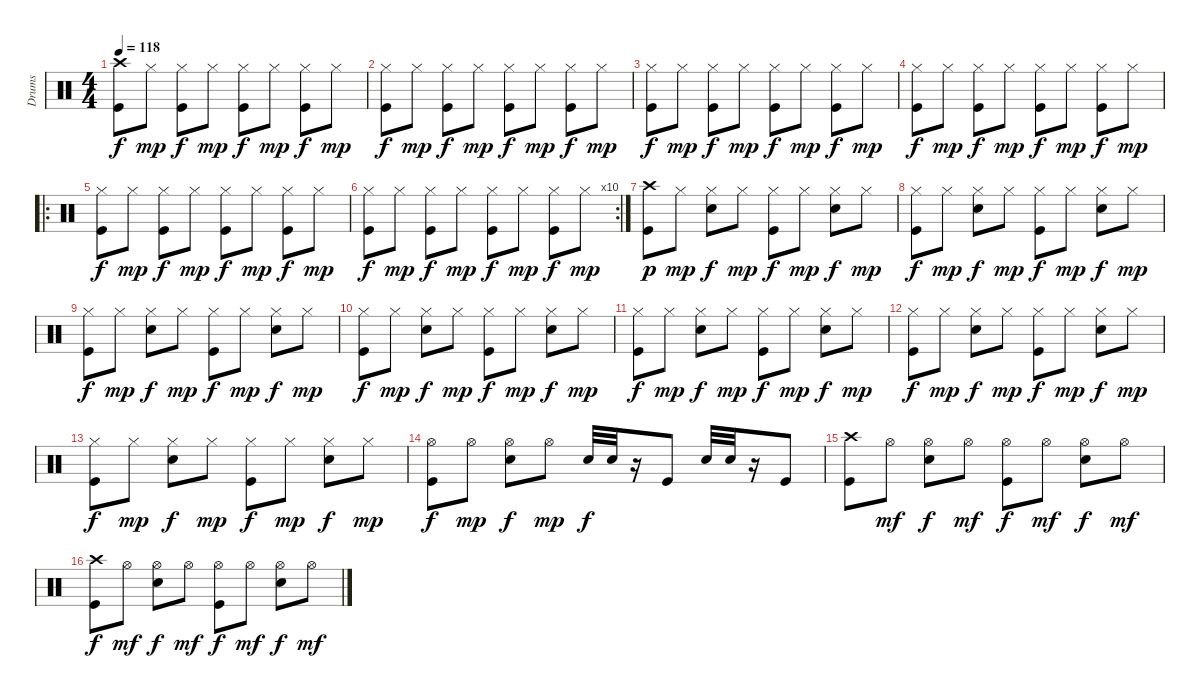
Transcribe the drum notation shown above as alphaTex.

\track ("Drums" "Drums") {instrument percussion}
\staff {score}
\articulation defaults
\ts (4 4)
\tempo 118
\clef neutral
\ks c
("Kick (hit)" "Crash high (hit)").8{dy f} "Hi-Hat (closed)".8{dy mp} ("Hi-Hat (closed)" "Kick (hit)").8{dy f} "Hi-Hat (closed)".8{dy mp} ("Hi-Hat (closed)" "Kick (hit)").8{dy f} "Hi-Hat (closed)".8{dy mp} ("Hi-Hat (closed)" "Kick (hit)").8{dy f} "Hi-Hat (closed)".8{dy mp} |
("Hi-Hat (closed)" "Kick (hit)").8{dy f} "Hi-Hat (closed)".8{dy mp} ("Hi-Hat (closed)" "Kick (hit)").8{dy f} "Hi-Hat (closed)".8{dy mp} ("Hi-Hat (closed)" "Kick (hit)").8{dy f} "Hi-Hat (closed)".8{dy mp} ("Hi-Hat (closed)" "Kick (hit)").8{dy f} "Hi-Hat (closed)".8{dy mp} |
("Hi-Hat (closed)" "Kick (hit)").8{dy f} "Hi-Hat (closed)".8{dy mp} ("Hi-Hat (closed)" "Kick (hit)").8{dy f} "Hi-Hat (closed)".8{dy mp} ("Hi-Hat (closed)" "Kick (hit)").8{dy f} "Hi-Hat (closed)".8{dy mp} ("Hi-Hat (closed)" "Kick (hit)").8{dy f} "Hi-Hat (closed)".8{dy mp} |
("Hi-Hat (closed)" "Kick (hit)").8{dy f} "Hi-Hat (closed)".8{dy mp} ("Hi-Hat (closed)" "Kick (hit)").8{dy f} "Hi-Hat (closed)".8{dy mp} ("Hi-Hat (closed)" "Kick (hit)").8{dy f} "Hi-Hat (closed)".8{dy mp} ("Hi-Hat (closed)" "Kick (hit)").8{dy f} "Hi-Hat (closed)".8{dy mp} |
\ro
("Hi-Hat (closed)" "Kick (hit)").8{dy f} "Hi-Hat (closed)".8{dy mp} ("Hi-Hat (closed)" "Kick (hit)").8{dy f} "Hi-Hat (closed)".8{dy mp} ("Hi-Hat (closed)" "Kick (hit)").8{dy f} "Hi-Hat (closed)".8{dy mp} ("Hi-Hat (closed)" "Kick (hit)").8{dy f} "Hi-Hat (closed)".8{dy mp} |
\rc 10
("Hi-Hat (closed)" "Kick (hit)").8{dy f} "Hi-Hat (closed)".8{dy mp} ("Hi-Hat (closed)" "Kick (hit)").8{dy f} "Hi-Hat (closed)".8{dy mp} ("Hi-Hat (closed)" "Kick (hit)").8{dy f} "Hi-Hat (closed)".8{dy mp} ("Hi-Hat (closed)" "Kick (hit)").8{dy f} "Hi-Hat (closed)".8{dy mp} |
("Crash high (hit)" "Kick (hit)").8{dy p} "Hi-Hat (closed)".8{dy mp} ("Hi-Hat (closed)" "Snare (hit) 2").8{dy f} "Hi-Hat (closed)".8{dy mp} ("Hi-Hat (closed)" "Kick (hit)").8{dy f} "Hi-Hat (closed)".8{dy mp} ("Hi-Hat (closed)" "Snare (hit) 2").8{dy f} "Hi-Hat (closed)".8{dy mp} |
("Hi-Hat (closed)" "Kick (hit)").8{dy f} "Hi-Hat (closed)".8{dy mp} ("Hi-Hat (closed)" "Snare (hit) 2").8{dy f} "Hi-Hat (closed)".8{dy mp} ("Hi-Hat (closed)" "Kick (hit)").8{dy f} "Hi-Hat (closed)".8{dy mp} ("Hi-Hat (closed)" "Snare (hit) 2").8{dy f} "Hi-Hat (closed)".8{dy mp} |
("Hi-Hat (closed)" "Kick (hit)").8{dy f} "Hi-Hat (closed)".8{dy mp} ("Hi-Hat (closed)" "Snare (hit) 2").8{dy f} "Hi-Hat (closed)".8{dy mp} ("Hi-Hat (closed)" "Kick (hit)").8{dy f} "Hi-Hat (closed)".8{dy mp} ("Hi-Hat (closed)" "Snare (hit) 2").8{dy f} "Hi-Hat (closed)".8{dy mp} |
("Hi-Hat (closed)" "Kick (hit)").8{dy f} "Hi-Hat (closed)".8{dy mp} ("Hi-Hat (closed)" "Snare (hit) 2").8{dy f} "Hi-Hat (closed)".8{dy mp} ("Hi-Hat (closed)" "Kick (hit)").8{dy f} "Hi-Hat (closed)".8{dy mp} ("Hi-Hat (closed)" "Snare (hit) 2").8{dy f} "Hi-Hat (closed)".8{dy mp} |
("Hi-Hat (closed)" "Kick (hit)").8{dy f} "Hi-Hat (closed)".8{dy mp} ("Hi-Hat (closed)" "Snare (hit) 2").8{dy f} "Hi-Hat (closed)".8{dy mp} ("Hi-Hat (closed)" "Kick (hit)").8{dy f} "Hi-Hat (closed)".8{dy mp} ("Hi-Hat (closed)" "Snare (hit) 2").8{dy f} "Hi-Hat (closed)".8{dy mp} |
("Hi-Hat (closed)" "Kick (hit)").8{dy f} "Hi-Hat (closed)".8{dy mp} ("Hi-Hat (closed)" "Snare (hit) 2").8{dy f} "Hi-Hat (closed)".8{dy mp} ("Hi-Hat (closed)" "Kick (hit)").8{dy f} "Hi-Hat (closed)".8{dy mp} ("Hi-Hat (closed)" "Snare (hit) 2").8{dy f} "Hi-Hat (closed)".8{dy mp} |
("Hi-Hat (closed)" "Kick (hit)").8{dy f} "Hi-Hat (closed)".8{dy mp} ("Hi-Hat (closed)" "Snare (hit) 2").8{dy f} "Hi-Hat (closed)".8{dy mp} ("Hi-Hat (closed)" "Kick (hit)").8{dy f} "Hi-Hat (closed)".8{dy mp} ("Hi-Hat (closed)" "Snare (hit) 2").8{dy f} "Hi-Hat (closed)".8{dy mp} |
("Hi-Hat (open)" "Kick (hit)").8{dy f} "Hi-Hat (open)".8{dy mp} ("Hi-Hat (open)" "Snare (hit) 2").8{dy f} "Hi-Hat (open)".8{dy mp} "Snare (hit) 2".32{dy f} "Snare (hit) 2".32 r.16 "Kick (hit)".8 "Snare (hit) 2".32 "Snare (hit) 2".32 r.16 "Kick (hit)".8 |
("Crash high (hit)" "Kick (hit)").8 "Hi-Hat (open)".8{dy mf} ("Hi-Hat (open)" "Snare (hit) 2").8{dy f} "Hi-Hat (open)".8{dy mf} ("Hi-Hat (open)" "Kick (hit)").8{dy f} "Hi-Hat (open)".8{dy mf} ("Hi-Hat (open)" "Snare (hit) 2").8{dy f} "Hi-Hat (open)".8{dy mf} |
("Crash high (hit)" "Kick (hit)").8{dy f} "Hi-Hat (open)".8{dy mf} ("Hi-Hat (open)" "Snare (hit) 2").8{dy f} "Hi-Hat (open)".8{dy mf} ("Hi-Hat (open)" "Kick (hit)").8{dy f} "Hi-Hat (open)".8{dy mf} ("Hi-Hat (open)" "Snare (hit) 2").8{dy f} "Hi-Hat (open)".8{dy mf}
